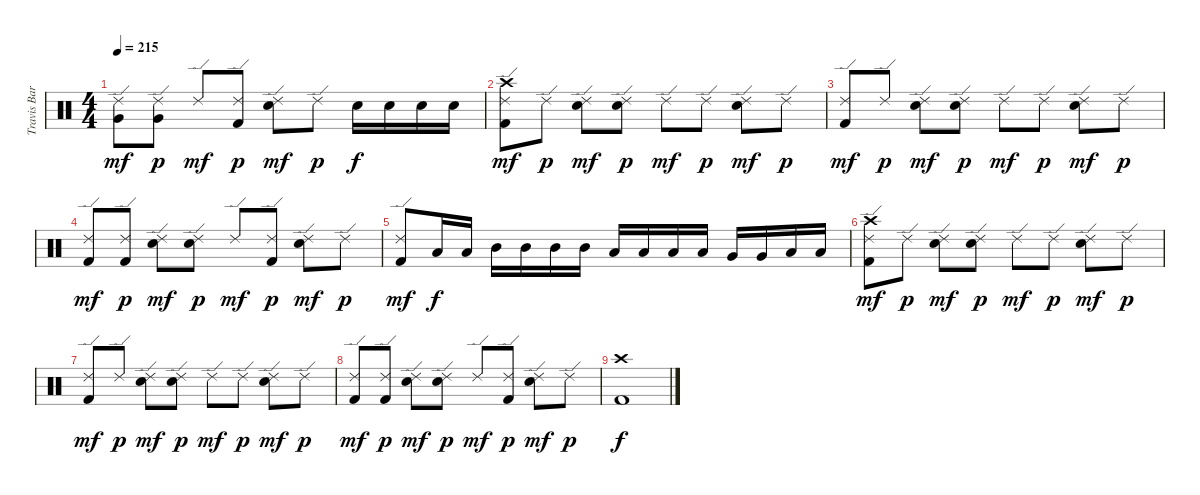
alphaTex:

\track ("Travis Barker" "Travis Bar") {instrument percussion}
\staff {score}
\articulation defaults
\ts (4 4)
\tempo 215
\clef neutral
\ks c
("Ride (edge) 2" "Very Low Tom (hit)").8{dy mf} ("Ride (edge) 2" "Very Low Tom (hit)").8{dy p} "Ride (edge) 2".8{dy mf} ("Ride (edge) 2" "Kick (hit) 2").8{dy p} ("Ride (edge) 2" "Snare (hit) 2").8{dy mf} "Ride (edge) 2".8{dy p} "Snare (hit) 2".16{dy f} "Snare (hit) 2".16 "Snare (hit) 2".16 "Snare (hit) 2".16 |
("Crash high (hit)" "Ride (edge) 2" "Kick (hit) 2").8{dy mf} "Ride (edge) 2".8{dy p} ("Ride (edge) 2" "Snare (hit) 2").8{dy mf} ("Ride (edge) 2" "Snare (hit) 2").8{dy p} "Ride (edge) 2".8{dy mf} "Ride (edge) 2".8{dy p} ("Ride (edge) 2" "Snare (hit) 2").8{dy mf} "Ride (edge) 2".8{dy p} |
("Ride (edge) 2" "Kick (hit) 2").8{dy mf} "Ride (edge) 2".8{dy p} ("Ride (edge) 2" "Snare (hit) 2").8{dy mf} ("Ride (edge) 2" "Snare (hit) 2").8{dy p} "Ride (edge) 2".8{dy mf} "Ride (edge) 2".8{dy p} ("Ride (edge) 2" "Snare (hit) 2").8{dy mf} "Ride (edge) 2".8{dy p} |
("Ride (edge) 2" "Kick (hit) 2").8{dy mf} ("Ride (edge) 2" "Kick (hit) 2").8{dy p} ("Ride (edge) 2" "Snare (hit) 2").8{dy mf} ("Ride (edge) 2" "Snare (hit) 2").8{dy p} "Ride (edge) 2".8{dy mf} ("Ride (edge) 2" "Kick (hit) 2").8{dy p} ("Ride (edge) 2" "Snare (hit) 2").8{dy mf} "Ride (edge) 2".8{dy p} |
("Ride (edge) 2" "Kick (hit) 2").8{dy mf} "Low Tom (hit)".16{dy f} "Low Tom (hit)".16 "Mid Tom (hit)".16 "Mid Tom (hit)".16 "Mid Tom (hit)".16 "Mid Tom (hit)".16 "Low Tom (hit)".16 "Low Tom (hit)".16 "Low Tom (hit)".16 "Low Tom (hit)".16 "Very Low Tom (hit)".16 "Very Low Tom (hit)".16 "Low Floor Tom (hit)".16 "Low Floor Tom (hit)".16 |
("Crash high (hit)" "Ride (edge) 2" "Kick (hit) 2").8{dy mf} "Ride (edge) 2".8{dy p} ("Ride (edge) 2" "Snare (hit) 2").8{dy mf} ("Ride (edge) 2" "Snare (hit) 2").8{dy p} "Ride (edge) 2".8{dy mf} "Ride (edge) 2".8{dy p} ("Ride (edge) 2" "Snare (hit) 2").8{dy mf} "Ride (edge) 2".8{dy p} |
("Ride (edge) 2" "Kick (hit) 2").8{dy mf} "Ride (edge) 2".8{dy p} ("Ride (edge) 2" "Snare (hit) 2").8{dy mf} ("Ride (edge) 2" "Snare (hit) 2").8{dy p} "Ride (edge) 2".8{dy mf} "Ride (edge) 2".8{dy p} ("Ride (edge) 2" "Snare (hit) 2").8{dy mf} "Ride (edge) 2".8{dy p} |
("Ride (edge) 2" "Kick (hit) 2").8{dy mf} ("Ride (edge) 2" "Kick (hit) 2").8{dy p} ("Ride (edge) 2" "Snare (hit) 2").8{dy mf} ("Ride (edge) 2" "Snare (hit) 2").8{dy p} "Ride (edge) 2".8{dy mf} ("Ride (edge) 2" "Kick (hit) 2").8{dy p} ("Ride (edge) 2" "Snare (hit) 2").8{dy mf} "Ride (edge) 2".8{dy p} |
("Crash high (hit)" "Kick (hit) 2").1{dy f}
